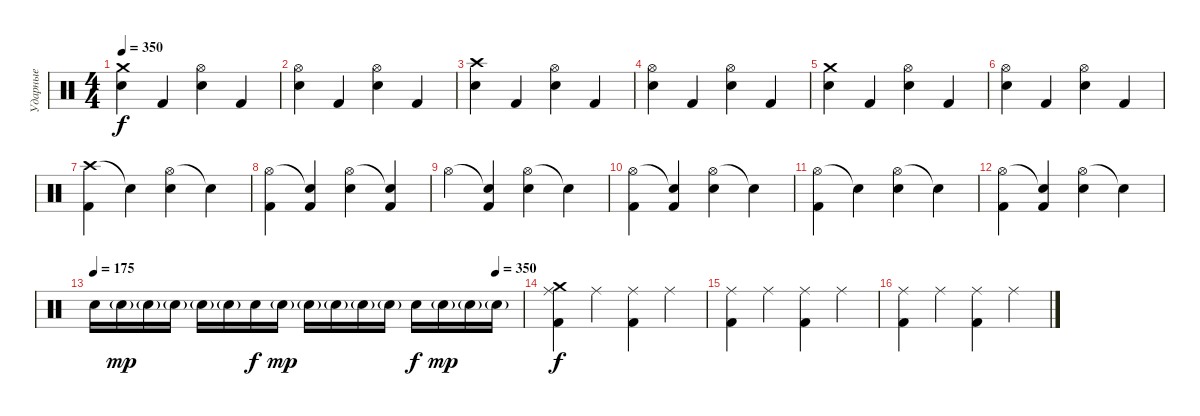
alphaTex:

\track ("Ударные" "Ударные") {instrument percussion}
\staff {score}
\articulation defaults
\ts (4 4)
\tempo 350
\clef neutral
\ks c
("Crash medium (hit)" "Electric Snare (hit)").4{dy f} "Kick (hit) 2".4 ("Hi-Hat (open)" "Electric Snare (hit)").4 "Kick (hit) 2".4 |
("Hi-Hat (open)" "Electric Snare (hit)").4 "Kick (hit) 2".4 ("Hi-Hat (open)" "Electric Snare (hit)").4 "Kick (hit) 2".4 |
("Crash high (hit)" "Electric Snare (hit)").4 "Kick (hit) 2".4 ("Hi-Hat (open)" "Electric Snare (hit)").4 "Kick (hit) 2".4 |
("Hi-Hat (open)" "Electric Snare (hit)").4 "Kick (hit) 2".4 ("Hi-Hat (open)" "Electric Snare (hit)").4 "Kick (hit) 2".4 |
("Crash medium (hit)" "Electric Snare (hit)").4 "Kick (hit) 2".4 ("Hi-Hat (open)" "Electric Snare (hit)").4 "Kick (hit) 2".4 |
("Hi-Hat (open)" "Electric Snare (hit)").4 "Kick (hit) 2".4 ("Hi-Hat (open)" "Electric Snare (hit)").4 "Kick (hit) 2".4 |
("Crash high (hit)" "Kick (hit) 2").4 "Snare (hit)"{t}.4 ("Hi-Hat (open)" "Electric Snare (hit)").4 "Snare (hit)"{t}.4 |
("Hi-Hat (open)" "Kick (hit) 2").4 ("Snare (hit)"{t} "Kick (hit) 2").4 ("Hi-Hat (open)" "Electric Snare (hit)").4 ("Snare (hit)"{t} "Kick (hit) 2").4 |
"Hi-Hat (open)".4 ("Snare (hit)"{t} "Kick (hit) 2").4 ("Hi-Hat (open)" "Electric Snare (hit)").4 "Snare (hit)"{t}.4 |
("Hi-Hat (open)" "Kick (hit) 2").4 ("Snare (hit)"{t} "Kick (hit) 2").4 ("Hi-Hat (open)" "Electric Snare (hit)").4 "Snare (hit)"{t}.4 |
("Hi-Hat (open)" "Kick (hit) 2").4 "Snare (hit)"{t}.4 ("Hi-Hat (open)" "Electric Snare (hit)").4 "Snare (hit)"{t}.4 |
("Hi-Hat (open)" "Kick (hit) 2").4 ("Snare (hit)"{t} "Kick (hit) 2").4 ("Hi-Hat (open)" "Electric Snare (hit)").4 "Snare (hit)"{t}.4 |
\tempo 175
\tempo (350 0.9375)
"Electric Snare (hit)".16 "Electric Snare (hit)"{g}.16{dy mp} "Electric Snare (hit)"{g}.16 "Electric Snare (hit)"{g}.16 "Electric Snare (hit)"{g}.16 "Electric Snare (hit)"{g}.16 "Electric Snare (hit)".16{dy f} "Electric Snare (hit)"{g}.16{dy mp} "Electric Snare (hit)"{g}.16 "Electric Snare (hit)"{g}.16 "Electric Snare (hit)"{g}.16 "Electric Snare (hit)"{g}.16 "Electric Snare (hit)".16{dy f} "Electric Snare (hit)"{g}.16{dy mp} "Electric Snare (hit)"{g}.16 "Electric Snare (hit)"{g}.16 |
("Crash medium (hit)" "Ride (middle)" "Kick (hit) 2").4{dy f} "Ride (middle)".4 ("Ride (middle)" "Kick (hit) 2").4 "Ride (middle)".4 |
("Ride (middle)" "Kick (hit) 2").4 "Ride (middle)".4 ("Ride (middle)" "Kick (hit) 2").4 "Ride (middle)".4 |
("Ride (middle)" "Kick (hit) 2").4 "Ride (middle)".4 ("Ride (middle)" "Kick (hit) 2").4 "Ride (middle)".4
